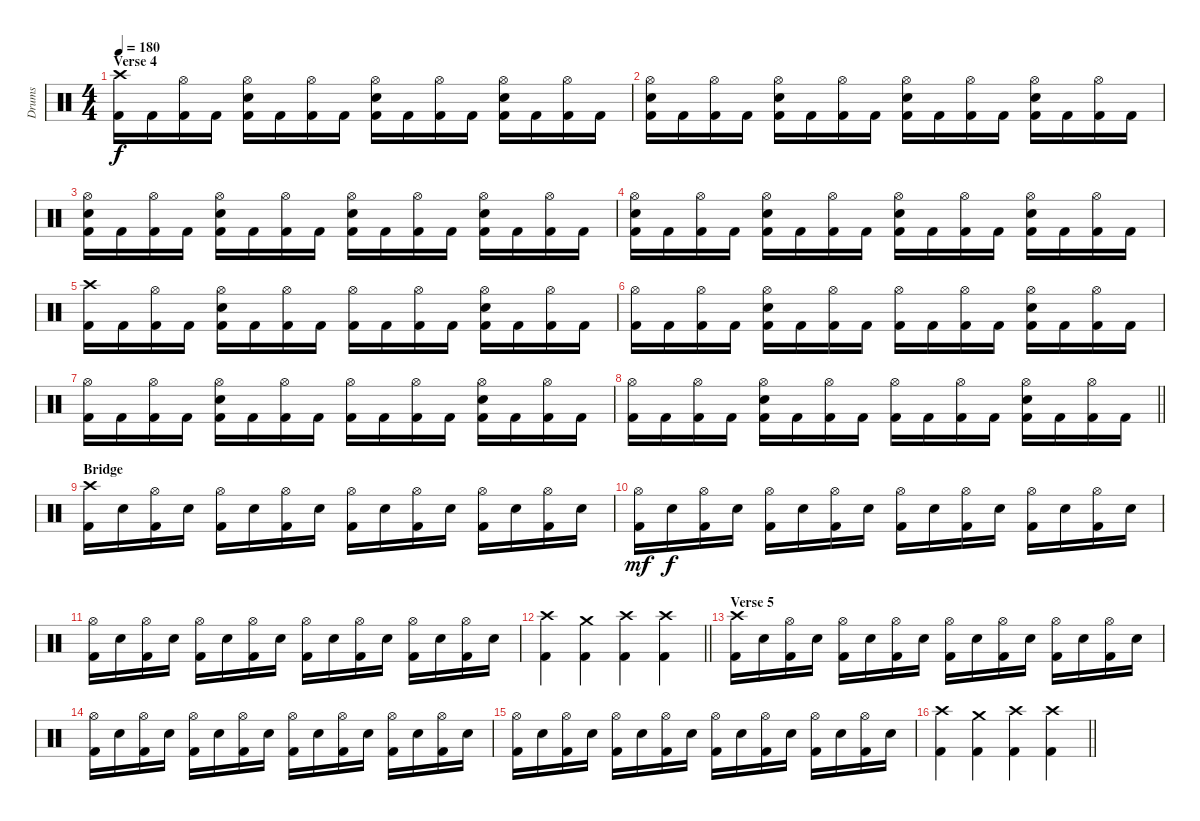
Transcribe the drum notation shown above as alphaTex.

\track ("Drums" "Drums") {instrument percussion}
\staff {score}
\articulation defaults
\ts (4 4)
\section ("" "Verse 4")
\tempo 180
\clef neutral
\ks c
("Crash high (hit)" "Kick (hit) 2").16{dy f} "Kick (hit) 2".16 ("Hi-Hat (open)" "Kick (hit) 2").16 "Kick (hit) 2".16 ("Hi-Hat (open)" "Electric Snare (hit)" "Kick (hit) 2").16 "Kick (hit) 2".16 ("Hi-Hat (open)" "Kick (hit) 2").16 "Kick (hit) 2".16 ("Hi-Hat (open)" "Electric Snare (hit)" "Kick (hit) 2").16 "Kick (hit) 2".16 ("Hi-Hat (open)" "Kick (hit) 2").16 "Kick (hit) 2".16 ("Hi-Hat (open)" "Electric Snare (hit)" "Kick (hit) 2").16 "Kick (hit) 2".16 ("Hi-Hat (open)" "Kick (hit) 2").16 "Kick (hit) 2".16 |
("Hi-Hat (open)" "Electric Snare (hit)" "Kick (hit) 2").16 "Kick (hit) 2".16 ("Hi-Hat (open)" "Kick (hit) 2").16 "Kick (hit) 2".16 ("Hi-Hat (open)" "Electric Snare (hit)" "Kick (hit) 2").16 "Kick (hit) 2".16 ("Hi-Hat (open)" "Kick (hit) 2").16 "Kick (hit) 2".16 ("Hi-Hat (open)" "Electric Snare (hit)" "Kick (hit) 2").16 "Kick (hit) 2".16 ("Hi-Hat (open)" "Kick (hit) 2").16 "Kick (hit) 2".16 ("Hi-Hat (open)" "Electric Snare (hit)" "Kick (hit) 2").16 "Kick (hit) 2".16 ("Hi-Hat (open)" "Kick (hit) 2").16 "Kick (hit) 2".16 |
("Hi-Hat (open)" "Electric Snare (hit)" "Kick (hit) 2").16 "Kick (hit) 2".16 ("Hi-Hat (open)" "Kick (hit) 2").16 "Kick (hit) 2".16 ("Hi-Hat (open)" "Electric Snare (hit)" "Kick (hit) 2").16 "Kick (hit) 2".16 ("Hi-Hat (open)" "Kick (hit) 2").16 "Kick (hit) 2".16 ("Hi-Hat (open)" "Electric Snare (hit)" "Kick (hit) 2").16 "Kick (hit) 2".16 ("Hi-Hat (open)" "Kick (hit) 2").16 "Kick (hit) 2".16 ("Hi-Hat (open)" "Electric Snare (hit)" "Kick (hit) 2").16 "Kick (hit) 2".16 ("Hi-Hat (open)" "Kick (hit) 2").16 "Kick (hit) 2".16 |
("Hi-Hat (open)" "Electric Snare (hit)" "Kick (hit) 2").16 "Kick (hit) 2".16 ("Hi-Hat (open)" "Kick (hit) 2").16 "Kick (hit) 2".16 ("Hi-Hat (open)" "Electric Snare (hit)" "Kick (hit) 2").16 "Kick (hit) 2".16 ("Hi-Hat (open)" "Kick (hit) 2").16 "Kick (hit) 2".16 ("Hi-Hat (open)" "Electric Snare (hit)" "Kick (hit) 2").16 "Kick (hit) 2".16 ("Hi-Hat (open)" "Kick (hit) 2").16 "Kick (hit) 2".16 ("Hi-Hat (open)" "Electric Snare (hit)" "Kick (hit) 2").16 "Kick (hit) 2".16 ("Hi-Hat (open)" "Kick (hit) 2").16 "Kick (hit) 2".16 |
("Crash high (hit)" "Kick (hit) 2").16 "Kick (hit) 2".16 ("Hi-Hat (open)" "Kick (hit) 2").16 "Kick (hit) 2".16 ("Hi-Hat (open)" "Electric Snare (hit)" "Kick (hit) 2").16 "Kick (hit) 2".16 ("Hi-Hat (open)" "Kick (hit) 2").16 "Kick (hit) 2".16 ("Hi-Hat (open)" "Kick (hit) 2").16 "Kick (hit) 2".16 ("Hi-Hat (open)" "Kick (hit) 2").16 "Kick (hit) 2".16 ("Hi-Hat (open)" "Electric Snare (hit)" "Kick (hit) 2").16 "Kick (hit) 2".16 ("Hi-Hat (open)" "Kick (hit) 2").16 "Kick (hit) 2".16 |
("Hi-Hat (open)" "Kick (hit) 2").16 "Kick (hit) 2".16 ("Hi-Hat (open)" "Kick (hit) 2").16 "Kick (hit) 2".16 ("Hi-Hat (open)" "Electric Snare (hit)" "Kick (hit) 2").16 "Kick (hit) 2".16 ("Hi-Hat (open)" "Kick (hit) 2").16 "Kick (hit) 2".16 ("Hi-Hat (open)" "Kick (hit) 2").16 "Kick (hit) 2".16 ("Hi-Hat (open)" "Kick (hit) 2").16 "Kick (hit) 2".16 ("Hi-Hat (open)" "Electric Snare (hit)" "Kick (hit) 2").16 "Kick (hit) 2".16 ("Hi-Hat (open)" "Kick (hit) 2").16 "Kick (hit) 2".16 |
("Hi-Hat (open)" "Kick (hit) 2").16 "Kick (hit) 2".16 ("Hi-Hat (open)" "Kick (hit) 2").16 "Kick (hit) 2".16 ("Hi-Hat (open)" "Electric Snare (hit)" "Kick (hit) 2").16 "Kick (hit) 2".16 ("Hi-Hat (open)" "Kick (hit) 2").16 "Kick (hit) 2".16 ("Hi-Hat (open)" "Kick (hit) 2").16 "Kick (hit) 2".16 ("Hi-Hat (open)" "Kick (hit) 2").16 "Kick (hit) 2".16 ("Hi-Hat (open)" "Electric Snare (hit)" "Kick (hit) 2").16 "Kick (hit) 2".16 ("Hi-Hat (open)" "Kick (hit) 2").16 "Kick (hit) 2".16 |
\barLineRight lightlight
("Hi-Hat (open)" "Kick (hit) 2").16 "Kick (hit) 2".16 ("Hi-Hat (open)" "Kick (hit) 2").16 "Kick (hit) 2".16 ("Hi-Hat (open)" "Electric Snare (hit)" "Kick (hit) 2").16 "Kick (hit) 2".16 ("Hi-Hat (open)" "Kick (hit) 2").16 "Kick (hit) 2".16 ("Hi-Hat (open)" "Kick (hit) 2").16 "Kick (hit) 2".16 ("Hi-Hat (open)" "Kick (hit) 2").16 "Kick (hit) 2".16 ("Hi-Hat (open)" "Electric Snare (hit)" "Kick (hit) 2").16 "Kick (hit) 2".16 ("Hi-Hat (open)" "Kick (hit) 2").16 "Kick (hit) 2".16 |
\section ("" "Bridge")
("Crash high (hit)" "Kick (hit) 2").16 "Electric Snare (hit)".16 ("Hi-Hat (open)" "Kick (hit) 2").16 "Electric Snare (hit)".16 ("Hi-Hat (open)" "Kick (hit) 2").16 "Electric Snare (hit)".16 ("Hi-Hat (open)" "Kick (hit) 2").16 "Electric Snare (hit)".16 ("Hi-Hat (open)" "Kick (hit) 2").16 "Electric Snare (hit)".16 ("Hi-Hat (open)" "Kick (hit) 2").16 "Electric Snare (hit)".16 ("Hi-Hat (open)" "Kick (hit) 2").16 "Electric Snare (hit)".16 ("Hi-Hat (open)" "Kick (hit) 2").16 "Electric Snare (hit)".16 |
("Hi-Hat (open)" "Kick (hit) 2").16{dy mf} "Electric Snare (hit)".16{dy f} ("Hi-Hat (open)" "Kick (hit) 2").16 "Electric Snare (hit)".16 ("Hi-Hat (open)" "Kick (hit) 2").16 "Electric Snare (hit)".16 ("Hi-Hat (open)" "Kick (hit) 2").16 "Electric Snare (hit)".16 ("Hi-Hat (open)" "Kick (hit) 2").16 "Electric Snare (hit)".16 ("Hi-Hat (open)" "Kick (hit) 2").16 "Electric Snare (hit)".16 ("Hi-Hat (open)" "Kick (hit) 2").16 "Electric Snare (hit)".16 ("Hi-Hat (open)" "Kick (hit) 2").16 "Electric Snare (hit)".16 |
("Hi-Hat (open)" "Kick (hit) 2").16 "Electric Snare (hit)".16 ("Hi-Hat (open)" "Kick (hit) 2").16 "Electric Snare (hit)".16 ("Hi-Hat (open)" "Kick (hit) 2").16 "Electric Snare (hit)".16 ("Hi-Hat (open)" "Kick (hit) 2").16 "Electric Snare (hit)".16 ("Hi-Hat (open)" "Kick (hit) 2").16 "Electric Snare (hit)".16 ("Hi-Hat (open)" "Kick (hit) 2").16 "Electric Snare (hit)".16 ("Hi-Hat (open)" "Kick (hit) 2").16 "Electric Snare (hit)".16 ("Hi-Hat (open)" "Kick (hit) 2").16 "Electric Snare (hit)".16 |
\barLineRight lightlight
("Crash high (hit)" "Kick (hit) 2").4 ("Crash medium (hit)" "Kick (hit) 2").4 ("Crash high (hit)" "Kick (hit) 2").4 ("Crash high (hit)" "Kick (hit) 2").4 |
\section ("" "Verse 5")
("Crash high (hit)" "Kick (hit) 2").16 "Electric Snare (hit)".16 ("Hi-Hat (open)" "Kick (hit) 2").16 "Electric Snare (hit)".16 ("Hi-Hat (open)" "Kick (hit) 2").16 "Electric Snare (hit)".16 ("Hi-Hat (open)" "Kick (hit) 2").16 "Electric Snare (hit)".16 ("Hi-Hat (open)" "Kick (hit) 2").16 "Electric Snare (hit)".16 ("Hi-Hat (open)" "Kick (hit) 2").16 "Electric Snare (hit)".16 ("Hi-Hat (open)" "Kick (hit) 2").16 "Electric Snare (hit)".16 ("Hi-Hat (open)" "Kick (hit) 2").16 "Electric Snare (hit)".16 |
("Hi-Hat (open)" "Kick (hit) 2").16 "Electric Snare (hit)".16 ("Hi-Hat (open)" "Kick (hit) 2").16 "Electric Snare (hit)".16 ("Hi-Hat (open)" "Kick (hit) 2").16 "Electric Snare (hit)".16 ("Hi-Hat (open)" "Kick (hit) 2").16 "Electric Snare (hit)".16 ("Hi-Hat (open)" "Kick (hit) 2").16 "Electric Snare (hit)".16 ("Hi-Hat (open)" "Kick (hit) 2").16 "Electric Snare (hit)".16 ("Hi-Hat (open)" "Kick (hit) 2").16 "Electric Snare (hit)".16 ("Hi-Hat (open)" "Kick (hit) 2").16 "Electric Snare (hit)".16 |
("Hi-Hat (open)" "Kick (hit) 2").16 "Electric Snare (hit)".16 ("Hi-Hat (open)" "Kick (hit) 2").16 "Electric Snare (hit)".16 ("Hi-Hat (open)" "Kick (hit) 2").16 "Electric Snare (hit)".16 ("Hi-Hat (open)" "Kick (hit) 2").16 "Electric Snare (hit)".16 ("Hi-Hat (open)" "Kick (hit) 2").16 "Electric Snare (hit)".16 ("Hi-Hat (open)" "Kick (hit) 2").16 "Electric Snare (hit)".16 ("Hi-Hat (open)" "Kick (hit) 2").16 "Electric Snare (hit)".16 ("Hi-Hat (open)" "Kick (hit) 2").16 "Electric Snare (hit)".16 |
\barLineRight lightlight
("Crash high (hit)" "Kick (hit) 2").4 ("Crash medium (hit)" "Kick (hit) 2").4 ("Crash high (hit)" "Kick (hit) 2").4 ("Crash high (hit)" "Kick (hit) 2").4
